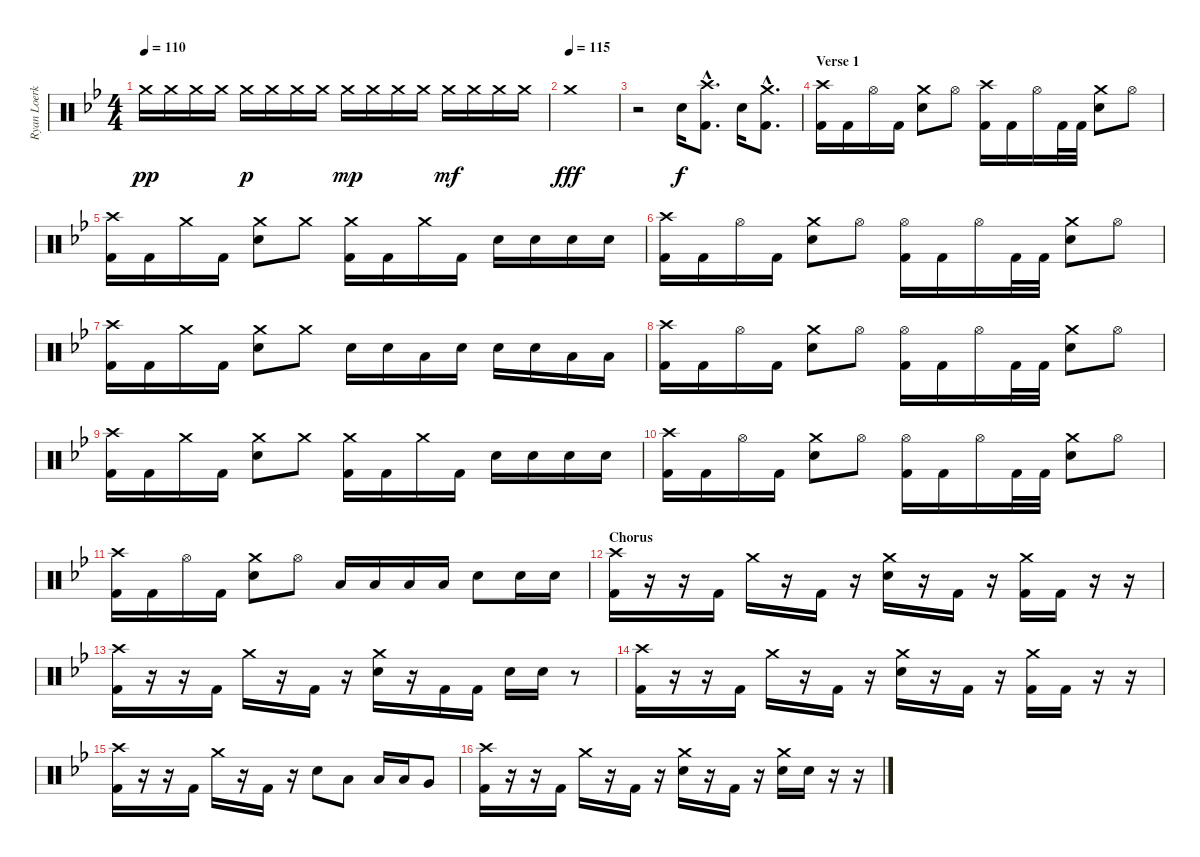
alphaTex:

\track ("Ryan Loerke" "Ryan Loerk") {instrument percussion}
\staff {score}
\articulation defaults
\ts (4 4)
\tempo 110
\clef neutral
\ks gminor "Crash medium (hit)".16{dy pp} "Crash medium (hit)".16 "Crash medium (hit)".16 "Crash medium (hit)".16 "Crash medium (hit)".16{dy p} "Crash medium (hit)".16 "Crash medium (hit)".16 "Crash medium (hit)".16 "Crash medium (hit)".16{dy mp} "Crash medium (hit)".16 "Crash medium (hit)".16 "Crash medium (hit)".16 "Crash medium (hit)".16{dy mf} "Crash medium (hit)".16 "Crash medium (hit)".16 "Crash medium (hit)".16
|
\tempo (115)
"Crash medium (hit)".1{dy fff} |
r.2 "Snare (hit) 2".16{dy f} ("Crash high (hit)"{hac} "Kick (hit) 2"{hac}).8{d} "Snare (hit) 2".16 ("Crash medium (hit)"{hac} "Kick (hit) 2"{hac}).8{d} |
\section ("" "Verse 1")
("Crash high (hit)" "Kick (hit) 2").16 "Kick (hit) 2".16 "Hi-Hat (open)".16 "Kick (hit) 2".16 ("Crash medium (hit)" "Snare (hit) 2").8 "Hi-Hat (open)".8 ("Crash high (hit)" "Kick (hit) 2").16 "Kick (hit) 2".16 "Hi-Hat (open)".16 "Kick (hit) 2".32 "Kick (hit) 2".32 ("Crash medium (hit)" "Snare (hit) 2").8 "Hi-Hat (open)".8 |
("Crash high (hit)" "Kick (hit) 2").16 "Kick (hit) 2".16 "Crash medium (hit)".16 "Kick (hit) 2".16 ("Crash medium (hit)" "Snare (hit) 2").8 "Crash medium (hit)".8 ("Crash medium (hit)" "Kick (hit) 2").16 "Kick (hit) 2".16 "Crash medium (hit)".16 "Kick (hit) 2".16 "Snare (hit) 2".16 "Snare (hit) 2".16 "Snare (hit) 2".16 "Snare (hit) 2".16 |
("Crash high (hit)" "Kick (hit) 2").16 "Kick (hit) 2".16 "Hi-Hat (open)".16 "Kick (hit) 2".16 ("Crash medium (hit)" "Snare (hit) 2").8 "Hi-Hat (open)".8 ("Hi-Hat (open)" "Kick (hit) 2").16 "Kick (hit) 2".16 "Hi-Hat (open)".16 "Kick (hit) 2".32 "Kick (hit) 2".32 ("Crash medium (hit)" "Snare (hit) 2").8 "Hi-Hat (open)".8 |
("Crash high (hit)" "Kick (hit) 2").16 "Kick (hit) 2".16 "Crash medium (hit)".16 "Kick (hit) 2".16 ("Crash medium (hit)" "Snare (hit) 2").8 "Crash medium (hit)".8 "Snare (hit) 2".16 "Snare (hit) 2".16 "Low Tom (hit)".16 "Snare (hit) 2".16 "Snare (hit) 2".16 "Snare (hit) 2".16 "Low Tom (hit)".16 "Low Tom (hit)".16 |
("Crash high (hit)" "Kick (hit) 2").16 "Kick (hit) 2".16 "Hi-Hat (open)".16 "Kick (hit) 2".16 ("Crash medium (hit)" "Snare (hit) 2").8 "Hi-Hat (open)".8 ("Hi-Hat (open)" "Kick (hit) 2").16 "Kick (hit) 2".16 "Hi-Hat (open)".16 "Kick (hit) 2".32 "Kick (hit) 2".32 ("Crash medium (hit)" "Snare (hit) 2").8 "Hi-Hat (open)".8 |
("Crash high (hit)" "Kick (hit) 2").16 "Kick (hit) 2".16 "Crash medium (hit)".16 "Kick (hit) 2".16 ("Crash medium (hit)" "Snare (hit) 2").8 "Crash medium (hit)".8 ("Crash medium (hit)" "Kick (hit) 2").16 "Kick (hit) 2".16 "Crash medium (hit)".16 "Kick (hit) 2".16 "Snare (hit) 2".16 "Snare (hit) 2".16 "Snare (hit) 2".16 "Snare (hit) 2".16 |
("Crash high (hit)" "Kick (hit) 2").16 "Kick (hit) 2".16 "Hi-Hat (open)".16 "Kick (hit) 2".16 ("Crash medium (hit)" "Snare (hit) 2").8 "Hi-Hat (open)".8 ("Hi-Hat (open)" "Kick (hit) 2").16 "Kick (hit) 2".16 "Hi-Hat (open)".16 "Kick (hit) 2".32 "Kick (hit) 2".32 ("Crash medium (hit)" "Snare (hit) 2").8 "Hi-Hat (open)".8 |
("Crash high (hit)" "Kick (hit) 2").16 "Kick (hit) 2".16 "Hi-Hat (open)".16 "Kick (hit) 2".16 ("Crash medium (hit)" "Snare (hit) 2").8 "Hi-Hat (open)".8 "Low Tom (hit)".16 "Low Tom (hit)".16 "Low Tom (hit)".16 "Low Tom (hit)".16 "Snare (hit) 2".8 "Snare (hit) 2".16 "Snare (hit) 2".16 |
\section ("" "Chorus")
("Crash high (hit)" "Kick (hit) 2").16 r.16 r.16 "Kick (hit) 2".16 "Crash medium (hit)".16 r.16 "Kick (hit) 2".16 r.16 ("Crash medium (hit)" "Snare (hit) 2").16 r.16 "Kick (hit) 2".16 r.16 ("Crash medium (hit)" "Kick (hit) 2").16 "Kick (hit) 2".16 r.16 r.16 |
("Crash high (hit)" "Kick (hit) 2").16 r.16 r.16 "Kick (hit) 2".16 "Crash medium (hit)".16 r.16 "Kick (hit) 2".16 r.16 ("Crash medium (hit)" "Snare (hit) 2").16 r.16 "Kick (hit) 2".16 "Kick (hit) 2".16 "Snare (hit) 2".16 "Snare (hit) 2".16 r.8 |
("Crash high (hit)" "Kick (hit) 2").16 r.16 r.16 "Kick (hit) 2".16 "Crash medium (hit)".16 r.16 "Kick (hit) 2".16 r.16 ("Crash medium (hit)" "Snare (hit) 2").16 r.16 "Kick (hit) 2".16 r.16 ("Crash medium (hit)" "Kick (hit) 2").16 "Kick (hit) 2".16 r.16 r.16 |
("Crash high (hit)" "Kick (hit) 2").16 r.16 r.16 "Kick (hit) 2".16 "Crash medium (hit)".16 r.16 "Kick (hit) 2".16 r.16 "Snare (hit) 2".8 "Low Tom (hit)".8 "Low Tom (hit)".16 "Low Tom (hit)".16 "Very Low Tom (hit)".8 |
("Crash high (hit)" "Kick (hit) 2").16 r.16 r.16 "Kick (hit) 2".16 "Crash medium (hit)".16 r.16 "Kick (hit) 2".16 r.16 ("Crash medium (hit)" "Snare (hit) 2").16 r.16 "Kick (hit) 2".16 r.16 ("Crash medium (hit)" "Snare (hit) 2").16 "Snare (hit) 2".16 r.16 r.16
